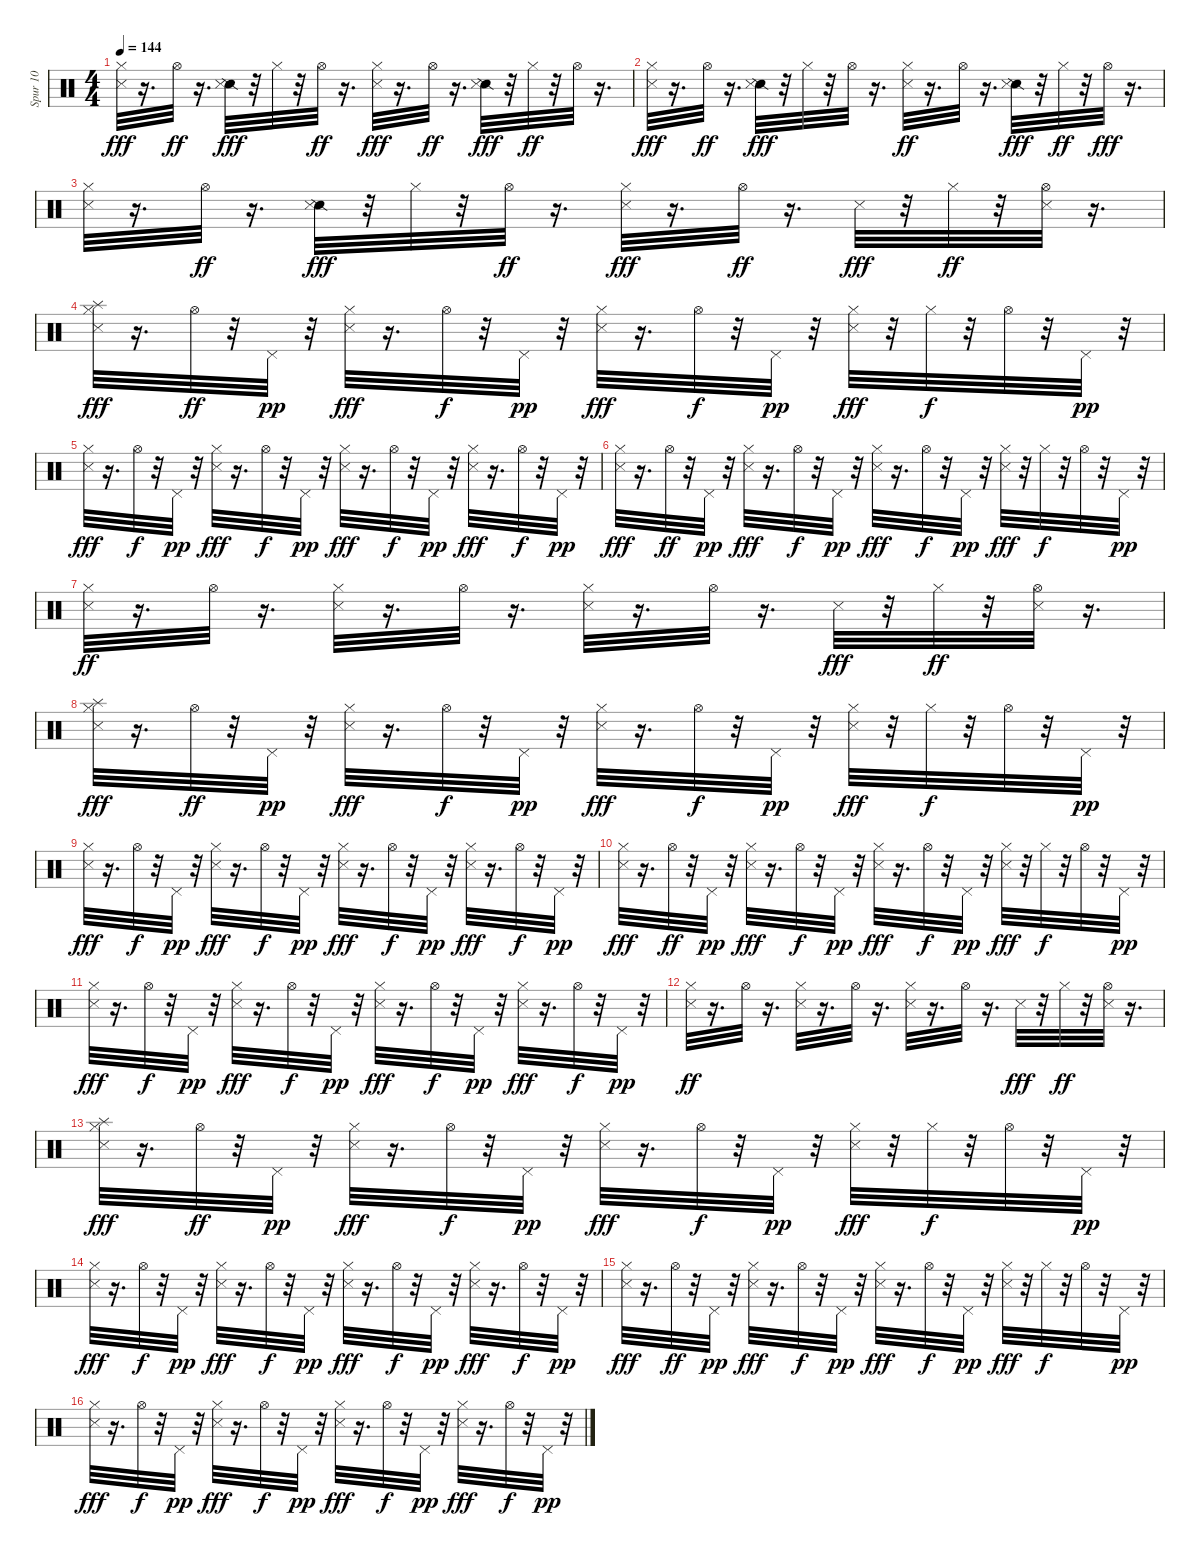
\track ("Spur 10" "Spur 10") {instrument percussion}
\staff {score}
\articulation defaults
\ts (4 4)
\tempo 144
\clef neutral
\ks c
("Metronome (hit)" "Hi-Hat (closed)").32{dy fff} r.16{d} "Hi-Hat (open)".32{dy ff} r.16{d} ("Snare (side stick) 2" "Metronome (hit)").32{dy fff} r.32 "Hi-Hat (closed)".32 r.32 "Hi-Hat (open)".32{dy ff} r.16{d} ("Metronome (hit)" "Hi-Hat (closed)").32{dy fff} r.16{d} "Hi-Hat (open)".32{dy ff} r.16{d} ("Snare (side stick) 2" "Metronome (hit)").32{dy fff} r.32 "Hi-Hat (closed)".32{dy ff} r.32 "Hi-Hat (open)".32 r.16{d} |
("Metronome (hit)" "Hi-Hat (closed)").32{dy fff} r.16{d} "Hi-Hat (open)".32{dy ff} r.16{d} ("Snare (side stick) 2" "Metronome (hit)").32{dy fff} r.32 "Hi-Hat (closed)".32 r.32 "Hi-Hat (open)".32 r.16{d} ("Metronome (hit)" "Hi-Hat (closed)").32{dy ff} r.16{d} "Hi-Hat (open)".32 r.16{d} ("Snare (side stick) 2" "Metronome (hit)").32{dy fff} r.32 "Hi-Hat (closed)".32{dy ff} r.32 "Hi-Hat (open)".32{dy fff} r.16{d} |
("Metronome (hit)" "Hi-Hat (closed)").32 r.16{d} "Hi-Hat (open)".32{dy ff} r.16{d} ("Snare (side stick) 2" "Metronome (hit)").32{dy fff} r.32 "Hi-Hat (closed)".32 r.32 "Hi-Hat (open)".32{dy ff} r.16{d} ("Metronome (hit)" "Hi-Hat (closed)").32{dy fff} r.16{d} "Hi-Hat (open)".32{dy ff} r.16{d} "Metronome (hit)".32{dy fff} r.32 "Hi-Hat (closed)".32{dy ff} r.32 ("Metronome (hit)" "Hi-Hat (open)").32 r.16{d} |
("Splash (hit)" "Metronome (hit)" "Hi-Hat (closed)").32{dy fff} r.16{d} "Hi-Hat (open)".32{dy ff} r.32 "Pedal Hi-Hat (hit)".32{dy pp} r.32 ("Metronome (hit)" "Hi-Hat (closed)").32{dy fff} r.16{d} "Hi-Hat (open)".32{dy f} r.32 "Pedal Hi-Hat (hit)".32{dy pp} r.32 ("Metronome (hit)" "Hi-Hat (closed)").32{dy fff} r.16{d} "Hi-Hat (open)".32{dy f} r.32 "Pedal Hi-Hat (hit)".32{dy pp} r.32 ("Metronome (hit)" "Hi-Hat (closed)").32{dy fff} r.32 "Hi-Hat (closed)".32{dy f} r.32 "Hi-Hat (open)".32 r.32 "Pedal Hi-Hat (hit)".32{dy pp} r.32 |
("Metronome (hit)" "Hi-Hat (closed)").32{dy fff} r.16{d} "Hi-Hat (open)".32{dy f} r.32 "Pedal Hi-Hat (hit)".32{dy pp} r.32 ("Metronome (hit)" "Hi-Hat (closed)").32{dy fff} r.16{d} "Hi-Hat (open)".32{dy f} r.32 "Pedal Hi-Hat (hit)".32{dy pp} r.32 ("Metronome (hit)" "Hi-Hat (closed)").32{dy fff} r.16{d} "Hi-Hat (open)".32{dy f} r.32 "Pedal Hi-Hat (hit)".32{dy pp} r.32 ("Metronome (hit)" "Hi-Hat (closed)").32{dy fff} r.16{d} "Hi-Hat (open)".32{dy f} r.32 "Pedal Hi-Hat (hit)".32{dy pp} r.32 |
("Metronome (hit)" "Hi-Hat (closed)").32{dy fff} r.16{d} "Hi-Hat (open)".32{dy ff} r.32 "Pedal Hi-Hat (hit)".32{dy pp} r.32 ("Metronome (hit)" "Hi-Hat (closed)").32{dy fff} r.16{d} "Hi-Hat (open)".32{dy f} r.32 "Pedal Hi-Hat (hit)".32{dy pp} r.32 ("Metronome (hit)" "Hi-Hat (closed)").32{dy fff} r.16{d} "Hi-Hat (open)".32{dy f} r.32 "Pedal Hi-Hat (hit)".32{dy pp} r.32 ("Metronome (hit)" "Hi-Hat (closed)").32{dy fff} r.32 "Hi-Hat (closed)".32{dy f} r.32 "Hi-Hat (open)".32 r.32 "Pedal Hi-Hat (hit)".32{dy pp} r.32 |
("Metronome (hit)" "Hi-Hat (closed)").32{dy ff} r.16{d} "Hi-Hat (open)".32 r.16{d} ("Metronome (hit)" "Hi-Hat (closed)").32 r.16{d} "Hi-Hat (open)".32 r.16{d} ("Metronome (hit)" "Hi-Hat (closed)").32 r.16{d} "Hi-Hat (open)".32 r.16{d} "Metronome (hit)".32{dy fff} r.32 "Hi-Hat (closed)".32{dy ff} r.32 ("Metronome (hit)" "Hi-Hat (open)").32 r.16{d} |
("Splash (hit)" "Metronome (hit)" "Hi-Hat (closed)").32{dy fff} r.16{d} "Hi-Hat (open)".32{dy ff} r.32 "Pedal Hi-Hat (hit)".32{dy pp} r.32 ("Metronome (hit)" "Hi-Hat (closed)").32{dy fff} r.16{d} "Hi-Hat (open)".32{dy f} r.32 "Pedal Hi-Hat (hit)".32{dy pp} r.32 ("Metronome (hit)" "Hi-Hat (closed)").32{dy fff} r.16{d} "Hi-Hat (open)".32{dy f} r.32 "Pedal Hi-Hat (hit)".32{dy pp} r.32 ("Metronome (hit)" "Hi-Hat (closed)").32{dy fff} r.32 "Hi-Hat (closed)".32{dy f} r.32 "Hi-Hat (open)".32 r.32 "Pedal Hi-Hat (hit)".32{dy pp} r.32 |
("Metronome (hit)" "Hi-Hat (closed)").32{dy fff} r.16{d} "Hi-Hat (open)".32{dy f} r.32 "Pedal Hi-Hat (hit)".32{dy pp} r.32 ("Metronome (hit)" "Hi-Hat (closed)").32{dy fff} r.16{d} "Hi-Hat (open)".32{dy f} r.32 "Pedal Hi-Hat (hit)".32{dy pp} r.32 ("Metronome (hit)" "Hi-Hat (closed)").32{dy fff} r.16{d} "Hi-Hat (open)".32{dy f} r.32 "Pedal Hi-Hat (hit)".32{dy pp} r.32 ("Metronome (hit)" "Hi-Hat (closed)").32{dy fff} r.16{d} "Hi-Hat (open)".32{dy f} r.32 "Pedal Hi-Hat (hit)".32{dy pp} r.32 |
("Metronome (hit)" "Hi-Hat (closed)").32{dy fff} r.16{d} "Hi-Hat (open)".32{dy ff} r.32 "Pedal Hi-Hat (hit)".32{dy pp} r.32 ("Metronome (hit)" "Hi-Hat (closed)").32{dy fff} r.16{d} "Hi-Hat (open)".32{dy f} r.32 "Pedal Hi-Hat (hit)".32{dy pp} r.32 ("Metronome (hit)" "Hi-Hat (closed)").32{dy fff} r.16{d} "Hi-Hat (open)".32{dy f} r.32 "Pedal Hi-Hat (hit)".32{dy pp} r.32 ("Metronome (hit)" "Hi-Hat (closed)").32{dy fff} r.32 "Hi-Hat (closed)".32{dy f} r.32 "Hi-Hat (open)".32 r.32 "Pedal Hi-Hat (hit)".32{dy pp} r.32 |
("Metronome (hit)" "Hi-Hat (closed)").32{dy fff} r.16{d} "Hi-Hat (open)".32{dy f} r.32 "Pedal Hi-Hat (hit)".32{dy pp} r.32 ("Metronome (hit)" "Hi-Hat (closed)").32{dy fff} r.16{d} "Hi-Hat (open)".32{dy f} r.32 "Pedal Hi-Hat (hit)".32{dy pp} r.32 ("Metronome (hit)" "Hi-Hat (closed)").32{dy fff} r.16{d} "Hi-Hat (open)".32{dy f} r.32 "Pedal Hi-Hat (hit)".32{dy pp} r.32 ("Metronome (hit)" "Hi-Hat (closed)").32{dy fff} r.16{d} "Hi-Hat (open)".32{dy f} r.32 "Pedal Hi-Hat (hit)".32{dy pp} r.32 |
("Metronome (hit)" "Hi-Hat (closed)").32{dy ff} r.16{d} "Hi-Hat (open)".32 r.16{d} ("Metronome (hit)" "Hi-Hat (closed)").32 r.16{d} "Hi-Hat (open)".32 r.16{d} ("Metronome (hit)" "Hi-Hat (closed)").32 r.16{d} "Hi-Hat (open)".32 r.16{d} "Metronome (hit)".32{dy fff} r.32 "Hi-Hat (closed)".32{dy ff} r.32 ("Metronome (hit)" "Hi-Hat (open)").32 r.16{d} |
("Splash (hit)" "Metronome (hit)" "Hi-Hat (closed)").32{dy fff} r.16{d} "Hi-Hat (open)".32{dy ff} r.32 "Pedal Hi-Hat (hit)".32{dy pp} r.32 ("Metronome (hit)" "Hi-Hat (closed)").32{dy fff} r.16{d} "Hi-Hat (open)".32{dy f} r.32 "Pedal Hi-Hat (hit)".32{dy pp} r.32 ("Metronome (hit)" "Hi-Hat (closed)").32{dy fff} r.16{d} "Hi-Hat (open)".32{dy f} r.32 "Pedal Hi-Hat (hit)".32{dy pp} r.32 ("Metronome (hit)" "Hi-Hat (closed)").32{dy fff} r.32 "Hi-Hat (closed)".32{dy f} r.32 "Hi-Hat (open)".32 r.32 "Pedal Hi-Hat (hit)".32{dy pp} r.32 |
("Metronome (hit)" "Hi-Hat (closed)").32{dy fff} r.16{d} "Hi-Hat (open)".32{dy f} r.32 "Pedal Hi-Hat (hit)".32{dy pp} r.32 ("Metronome (hit)" "Hi-Hat (closed)").32{dy fff} r.16{d} "Hi-Hat (open)".32{dy f} r.32 "Pedal Hi-Hat (hit)".32{dy pp} r.32 ("Metronome (hit)" "Hi-Hat (closed)").32{dy fff} r.16{d} "Hi-Hat (open)".32{dy f} r.32 "Pedal Hi-Hat (hit)".32{dy pp} r.32 ("Metronome (hit)" "Hi-Hat (closed)").32{dy fff} r.16{d} "Hi-Hat (open)".32{dy f} r.32 "Pedal Hi-Hat (hit)".32{dy pp} r.32 |
("Metronome (hit)" "Hi-Hat (closed)").32{dy fff} r.16{d} "Hi-Hat (open)".32{dy ff} r.32 "Pedal Hi-Hat (hit)".32{dy pp} r.32 ("Metronome (hit)" "Hi-Hat (closed)").32{dy fff} r.16{d} "Hi-Hat (open)".32{dy f} r.32 "Pedal Hi-Hat (hit)".32{dy pp} r.32 ("Metronome (hit)" "Hi-Hat (closed)").32{dy fff} r.16{d} "Hi-Hat (open)".32{dy f} r.32 "Pedal Hi-Hat (hit)".32{dy pp} r.32 ("Metronome (hit)" "Hi-Hat (closed)").32{dy fff} r.32 "Hi-Hat (closed)".32{dy f} r.32 "Hi-Hat (open)".32 r.32 "Pedal Hi-Hat (hit)".32{dy pp} r.32 |
("Metronome (hit)" "Hi-Hat (closed)").32{dy fff} r.16{d} "Hi-Hat (open)".32{dy f} r.32 "Pedal Hi-Hat (hit)".32{dy pp} r.32 ("Metronome (hit)" "Hi-Hat (closed)").32{dy fff} r.16{d} "Hi-Hat (open)".32{dy f} r.32 "Pedal Hi-Hat (hit)".32{dy pp} r.32 ("Metronome (hit)" "Hi-Hat (closed)").32{dy fff} r.16{d} "Hi-Hat (open)".32{dy f} r.32 "Pedal Hi-Hat (hit)".32{dy pp} r.32 ("Metronome (hit)" "Hi-Hat (closed)").32{dy fff} r.16{d} "Hi-Hat (open)".32{dy f} r.32 "Pedal Hi-Hat (hit)".32{dy pp} r.32
